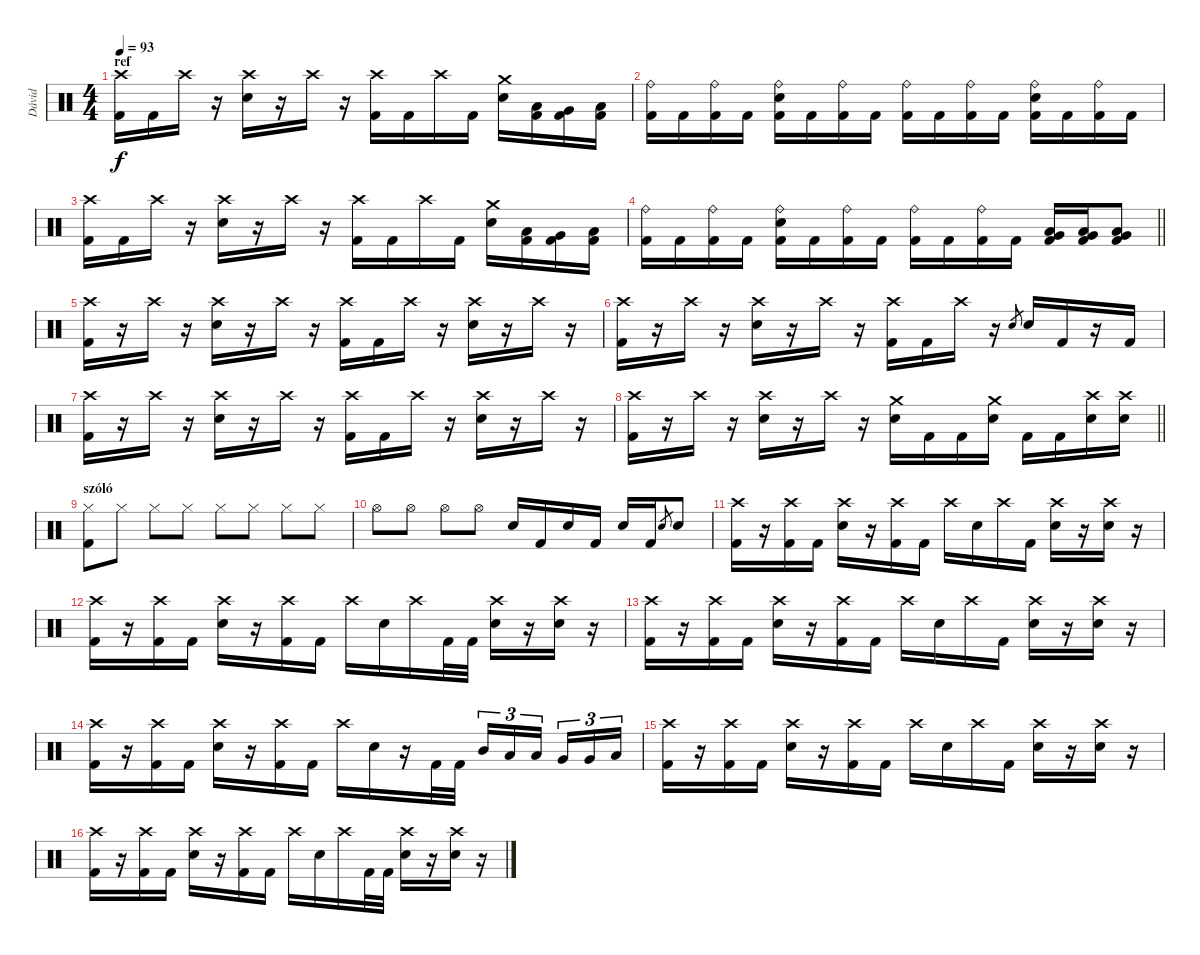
\track ("Dávid" "Dávid") {instrument percussion}
\staff {score}
\articulation defaults
\ts (4 4)
\section ("" "ref")
\tempo 93
\clef neutral
\ks c
("Crash high (hit)" "Kick (hit) 2").16{dy f} "Kick (hit) 2".16 "Crash high (hit)".16 r.16 ("Crash high (hit)" "Electric Snare (hit)").16 r.16 "Crash high (hit)".16 r.16 ("Crash high (hit)" "Kick (hit) 2").16 "Kick (hit) 2".16 "Crash high (hit)".16 "Kick (hit) 2".16 ("Crash medium (hit)" "Electric Snare (hit)").16 ("Kick (hit) 2" "Low Tom (hit)").16 ("Kick (hit) 2" "Very Low Tom (hit)").16 ("Kick (hit) 2" "Low Floor Tom (hit)").16 |
("Ride (bell)" "Kick (hit) 2").16 "Kick (hit) 2".16 ("Ride (bell)" "Kick (hit) 2").16 "Kick (hit) 2".16 ("Ride (bell)" "Electric Snare (hit)" "Kick (hit) 2").16 "Kick (hit) 2".16 ("Ride (bell)" "Kick (hit) 2").16 "Kick (hit) 2".16 ("Ride (bell)" "Kick (hit) 2").16 "Kick (hit) 2".16 ("Ride (bell)" "Kick (hit) 2").16 "Kick (hit) 2".16 ("Ride (bell)" "Electric Snare (hit)" "Kick (hit) 2").16 "Kick (hit) 2".16 ("Ride (bell)" "Kick (hit) 2").16 "Kick (hit) 2".16 |
("Crash high (hit)" "Kick (hit) 2").16 "Kick (hit) 2".16 "Crash high (hit)".16 r.16 ("Crash high (hit)" "Electric Snare (hit)").16 r.16 "Crash high (hit)".16 r.16 ("Crash high (hit)" "Kick (hit) 2").16 "Kick (hit) 2".16 "Crash high (hit)".16 "Kick (hit) 2".16 ("Crash medium (hit)" "Electric Snare (hit)").16 ("Kick (hit) 2" "Low Tom (hit)").16 ("Kick (hit) 2" "Very Low Tom (hit)").16 ("Kick (hit) 2" "Low Floor Tom (hit)").16 |
\barLineRight lightlight
("Ride (bell)" "Kick (hit) 2").16 "Kick (hit) 2".16 ("Ride (bell)" "Kick (hit) 2").16 "Kick (hit) 2".16 ("Ride (bell)" "Electric Snare (hit)" "Kick (hit) 2").16 "Kick (hit) 2".16 ("Ride (bell)" "Kick (hit) 2").16 "Kick (hit) 2".16 ("Ride (bell)" "Kick (hit) 2").16 "Kick (hit) 2".16 ("Ride (bell)" "Kick (hit) 2").16 "Kick (hit) 2".16 ("Very Low Tom (hit)" "Low Floor Tom (hit)" "Kick (hit) 2").16 ("Very Low Tom (hit)" "Low Floor Tom (hit)" "Kick (hit) 2").16 ("Very Low Tom (hit)" "Low Floor Tom (hit)" "Kick (hit) 2").8 |
("Crash high (hit)" "Kick (hit) 2").16 r.16 "Crash high (hit)".16 r.16 ("Crash high (hit)" "Electric Snare (hit)").16 r.16 "Crash high (hit)".16 r.16 ("Crash high (hit)" "Kick (hit) 2").16 "Kick (hit) 2".16 "Crash high (hit)".16 r.16 ("Crash high (hit)" "Electric Snare (hit)").16 r.16 "Crash high (hit)".16 r.16 |
("Crash high (hit)" "Kick (hit) 2").16 r.16 "Crash high (hit)".16 r.16 ("Crash high (hit)" "Electric Snare (hit)").16 r.16 "Crash high (hit)".16 r.16 ("Crash high (hit)" "Kick (hit) 2").16 "Kick (hit) 2".16 "Crash high (hit)".16 r.16 "Electric Snare (hit)".8{gr} "Electric Snare (hit)".16 "Kick (hit) 2".16 r.16 "Kick (hit) 2".16 |
("Crash high (hit)" "Kick (hit) 2").16 r.16 "Crash high (hit)".16 r.16 ("Crash high (hit)" "Electric Snare (hit)").16 r.16 "Crash high (hit)".16 r.16 ("Crash high (hit)" "Kick (hit) 2").16 "Kick (hit) 2".16 "Crash high (hit)".16 r.16 ("Crash high (hit)" "Electric Snare (hit)").16 r.16 "Crash high (hit)".16 r.16 |
\barLineRight lightlight
("Crash high (hit)" "Kick (hit) 2").16 r.16 "Crash high (hit)".16 r.16 ("Crash high (hit)" "Electric Snare (hit)").16 r.16 "Crash high (hit)".16 r.16 ("Crash medium (hit)" "Electric Snare (hit)").16 "Kick (hit) 2".16 "Kick (hit) 2".16 ("Crash medium (hit)" "Electric Snare (hit)").16 "Kick (hit) 2".16 "Kick (hit) 2".16 ("Crash high (hit)" "Electric Snare (hit)").16 ("Crash high (hit)" "Electric Snare (hit)").16 |
\section ("" "szóló")
("Hi-Hat (closed)" "Kick (hit) 2").8 "Hi-Hat (closed)".8 "Hi-Hat (closed)".8 "Hi-Hat (closed)".8 "Hi-Hat (closed)".8 "Hi-Hat (closed)".8 "Hi-Hat (closed)".8 "Hi-Hat (closed)".8 |
"Hi-Hat (open)".8 "Hi-Hat (open)".8 "Hi-Hat (open)".8 "Hi-Hat (open)".8 "Electric Snare (hit)".16 "Kick (hit) 2".16 "Electric Snare (hit)".16 "Kick (hit) 2".16 "Electric Snare (hit)".16 "Kick (hit) 2".16 "Electric Snare (hit)".8{gr} "Electric Snare (hit)".8 |
("Crash high (hit)" "Kick (hit) 2").16 r.16 ("Crash high (hit)" "Kick (hit) 2").16 "Kick (hit) 2".16 ("Crash high (hit)" "Electric Snare (hit)").16 r.16 ("Crash high (hit)" "Kick (hit) 2").16 "Kick (hit) 2".16 "Crash high (hit)".16 "Electric Snare (hit)".16 "Crash high (hit)".16 "Kick (hit) 2".16 ("Crash high (hit)" "Electric Snare (hit)").16 r.16 ("Crash high (hit)" "Electric Snare (hit)").16 r.16 |
("Crash high (hit)" "Kick (hit) 2").16 r.16 ("Crash high (hit)" "Kick (hit) 2").16 "Kick (hit) 2".16 ("Crash high (hit)" "Electric Snare (hit)").16 r.16 ("Crash high (hit)" "Kick (hit) 2").16 "Kick (hit) 2".16 "Crash high (hit)".16 "Electric Snare (hit)".16 "Crash high (hit)".16 "Kick (hit) 2".32 "Kick (hit) 2".32 ("Crash high (hit)" "Electric Snare (hit)").16 r.16 ("Crash high (hit)" "Electric Snare (hit)").16 r.16 |
("Crash high (hit)" "Kick (hit) 2").16 r.16 ("Crash high (hit)" "Kick (hit) 2").16 "Kick (hit) 2".16 ("Crash high (hit)" "Electric Snare (hit)").16 r.16 ("Crash high (hit)" "Kick (hit) 2").16 "Kick (hit) 2".16 "Crash high (hit)".16 "Electric Snare (hit)".16 "Crash high (hit)".16 "Kick (hit) 2".16 ("Crash high (hit)" "Electric Snare (hit)").16 r.16 ("Crash high (hit)" "Electric Snare (hit)").16 r.16 |
("Crash high (hit)" "Kick (hit) 2").16 r.16 ("Crash high (hit)" "Kick (hit) 2").16 "Kick (hit) 2".16 ("Crash high (hit)" "Electric Snare (hit)").16 r.16 ("Crash high (hit)" "Kick (hit) 2").16 "Kick (hit) 2".16 "Crash high (hit)".16 "Electric Snare (hit)".16 r.16 "Kick (hit) 2".32 "Kick (hit) 2".32 "Mid Tom (hit)".16{tu (3 2)} "Low Tom (hit)".16{tu (3 2)} "Low Tom (hit)".16{tu (3 2)} "Very Low Tom (hit)".16{tu (3 2)} "Very Low Tom (hit)".16{tu (3 2)} "Low Floor Tom (hit)".16{tu (3 2)} |
("Crash high (hit)" "Kick (hit) 2").16 r.16 ("Crash high (hit)" "Kick (hit) 2").16 "Kick (hit) 2".16 ("Crash high (hit)" "Electric Snare (hit)").16 r.16 ("Crash high (hit)" "Kick (hit) 2").16 "Kick (hit) 2".16 "Crash high (hit)".16 "Electric Snare (hit)".16 "Crash high (hit)".16 "Kick (hit) 2".16 ("Crash high (hit)" "Electric Snare (hit)").16 r.16 ("Crash high (hit)" "Electric Snare (hit)").16 r.16 |
("Crash high (hit)" "Kick (hit) 2").16 r.16 ("Crash high (hit)" "Kick (hit) 2").16 "Kick (hit) 2".16 ("Crash high (hit)" "Electric Snare (hit)").16 r.16 ("Crash high (hit)" "Kick (hit) 2").16 "Kick (hit) 2".16 "Crash high (hit)".16 "Electric Snare (hit)".16 "Crash high (hit)".16 "Kick (hit) 2".32 "Kick (hit) 2".32 ("Crash high (hit)" "Electric Snare (hit)").16 r.16 ("Crash high (hit)" "Electric Snare (hit)").16 r.16
